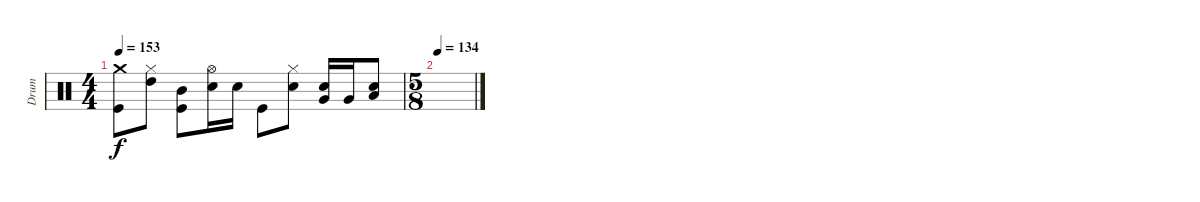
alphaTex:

\track ("Drum" "Drum") {instrument percussion}
\staff {score}
\articulation defaults
\ts (4 4)
\tempo 153
\clef neutral
\ks c
("Kick (hit)" "Crash medium (hit)"{t}).8{dy f} ("Hi-Hat (closed)" "High Tom (hit)").8 ("Kick (hit)" "Mid Tom (hit)").8 ("Snare (hit) 2" "Hi-Hat (open)").16 "Snare (hit) 2".16 "Kick (hit)".8 ("Hi-Hat (closed)" "Electric Snare (hit)").8 ("Electric Snare (hit)" "Very Low Tom (hit)").16 "Very Low Tom (hit)".16 ("Electric Snare (hit)" "Low Floor Tom (hit)").8 |
\ts (5 8)
\tempo 134
